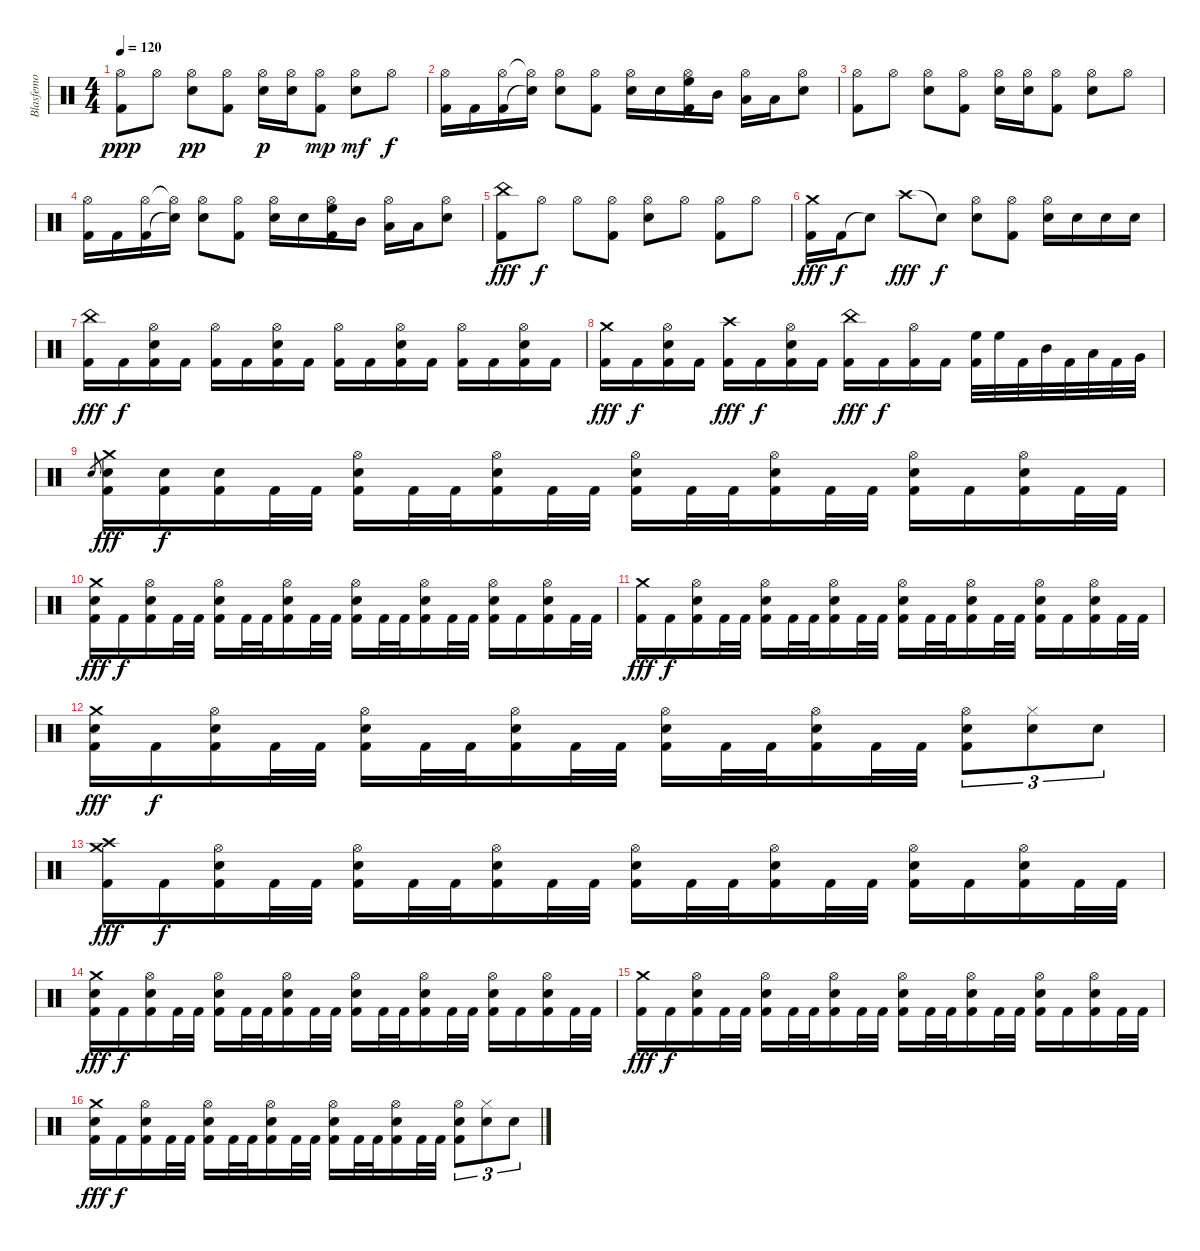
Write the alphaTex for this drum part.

\track ("Blasfemo" "Blasfemo") {instrument percussion}
\staff {score}
\articulation defaults
\ts (4 4)
\tempo 120
\clef neutral
\ks c
("Hi-Hat (open)" "Kick (hit) 2").8{dy ppp} "Hi-Hat (open)".8 ("Hi-Hat (open)" "Electric Snare (hit)").8{dy pp} ("Hi-Hat (open)" "Kick (hit) 2").8 ("Hi-Hat (open)" "Electric Snare (hit)").16{dy p} ("Hi-Hat (open)" "Electric Snare (hit)").16 ("Hi-Hat (open)" "Kick (hit) 2").8{dy mp} ("Hi-Hat (open)" "Electric Snare (hit)").8{dy mf} "Hi-Hat (open)".8{dy f} |
("Hi-Hat (open)" "Kick (hit) 2").16 "Kick (hit) 2".16 ("Hi-Hat (open)" "Kick (hit) 2").16 ("Hi-Hat (open)"{t} "Snare (hit)"{t}).16 ("Hi-Hat (open)" "Electric Snare (hit)").8 ("Hi-Hat (open)" "Kick (hit) 2").8 ("Hi-Hat (open)" "Electric Snare (hit)").16 "Electric Snare (hit)".16 ("Hi-Hat (open)" "High Floor Tom (hit)" "Kick (hit) 2").16 "Mid Tom (hit)".16 ("Hi-Hat (open)" "Low Tom (hit)").16 "Low Tom (hit)".16 ("Hi-Hat (open)" "Electric Snare (hit)").8 |
("Hi-Hat (open)" "Kick (hit) 2").8 "Hi-Hat (open)".8 ("Hi-Hat (open)" "Electric Snare (hit)").8 ("Hi-Hat (open)" "Kick (hit) 2").8 ("Hi-Hat (open)" "Electric Snare (hit)").16 ("Hi-Hat (open)" "Electric Snare (hit)").16 ("Hi-Hat (open)" "Kick (hit) 2").8 ("Hi-Hat (open)" "Electric Snare (hit)").8 "Hi-Hat (open)".8 |
("Hi-Hat (open)" "Kick (hit) 2").16 "Kick (hit) 2".16 ("Hi-Hat (open)" "Kick (hit) 2").16 ("Hi-Hat (open)"{t} "Snare (hit)"{t}).16 ("Hi-Hat (open)" "Electric Snare (hit)").8 ("Hi-Hat (open)" "Kick (hit) 2").8 ("Hi-Hat (open)" "Electric Snare (hit)").16 "Electric Snare (hit)".16 ("Hi-Hat (open)" "High Floor Tom (hit)" "Kick (hit) 2").16 "Mid Tom (hit)".16 ("Hi-Hat (open)" "Low Tom (hit)").16 "Low Tom (hit)".16 ("Hi-Hat (open)" "Electric Snare (hit)").8 |
("China (hit)" "Kick (hit) 2").8{dy fff} "Hi-Hat (open)".8{dy f} "Hi-Hat (open)".8 ("Hi-Hat (open)" "Kick (hit) 2").8 ("Hi-Hat (open)" "Electric Snare (hit)").8 "Hi-Hat (open)".8 ("Hi-Hat (open)" "Kick (hit) 2").8 "Hi-Hat (open)".8 |
("Crash medium (hit)" "Kick (hit) 2").16{dy fff} "Kick (hit) 2".16{dy f} "Snare (hit)"{t}.8 "Crash high (hit)".8{dy fff} "Snare (hit)"{t}.8{dy f} ("Hi-Hat (open)" "Electric Snare (hit)").8 ("Hi-Hat (open)" "Kick (hit) 2").8 ("Hi-Hat (open)" "Electric Snare (hit)").16 "Electric Snare (hit)".16 "Electric Snare (hit)".16 "Electric Snare (hit)".16 |
("China (hit)" "Kick (hit) 2").16{dy fff} "Kick (hit) 2".16{dy f} ("Hi-Hat (open)" "Electric Snare (hit)" "Kick (hit) 2").16 "Kick (hit) 2".16 ("Hi-Hat (open)" "Kick (hit) 2").16 "Kick (hit) 2".16 ("Hi-Hat (open)" "Electric Snare (hit)" "Kick (hit) 2").16 "Kick (hit) 2".16 ("Hi-Hat (open)" "Kick (hit) 2").16 "Kick (hit) 2".16 ("Hi-Hat (open)" "Electric Snare (hit)" "Kick (hit) 2").16 "Kick (hit) 2".16 ("Hi-Hat (open)" "Kick (hit) 2").16 "Kick (hit) 2".16 ("Hi-Hat (open)" "Electric Snare (hit)" "Kick (hit) 2").16 "Kick (hit) 2".16 |
("Crash medium (hit)" "Kick (hit) 2").16{dy fff} "Kick (hit) 2".16{dy f} ("Hi-Hat (open)" "Electric Snare (hit)" "Kick (hit) 2").16 "Kick (hit) 2".16 ("Crash high (hit)" "Kick (hit) 2").16{dy fff} "Kick (hit) 2".16{dy f} ("Hi-Hat (open)" "Electric Snare (hit)" "Kick (hit) 2").16 "Kick (hit) 2".16 ("China (hit)" "Kick (hit) 2").16{dy fff} "Kick (hit) 2".16{dy f} ("Hi-Hat (open)" "Kick (hit) 2").16 "Kick (hit) 2".16 ("High Floor Tom (hit)" "Kick (hit) 2").32 "High Floor Tom (hit)".32 "Kick (hit) 2".32 "Mid Tom (hit)".32 "Kick (hit) 2".32 "Low Tom (hit)".32 "Kick (hit) 2".32 "Very Low Tom (hit)".32 |
"Electric Snare (hit)".8{gr} ("Crash medium (hit)" "Electric Snare (hit)" "Kick (hit) 2").16{dy fff} ("Electric Snare (hit)" "Kick (hit) 2").16{dy f} ("Electric Snare (hit)" "Kick (hit) 2").16 "Kick (hit) 2".32 "Kick (hit) 2".32 ("Hi-Hat (open)" "Electric Snare (hit)" "Kick (hit) 2").16 "Kick (hit) 2".32 "Kick (hit) 2".32 ("Hi-Hat (open)" "Electric Snare (hit)" "Kick (hit) 2").16 "Kick (hit) 2".32 "Kick (hit) 2".32 ("Hi-Hat (open)" "Electric Snare (hit)" "Kick (hit) 2").16 "Kick (hit) 2".32 "Kick (hit) 2".32 ("Hi-Hat (open)" "Electric Snare (hit)" "Kick (hit) 2").16 "Kick (hit) 2".32 "Kick (hit) 2".32 ("Hi-Hat (open)" "Electric Snare (hit)" "Kick (hit) 2").16 "Kick (hit) 2".16 ("Hi-Hat (open)" "Electric Snare (hit)" "Kick (hit) 2").16 "Kick (hit) 2".32 "Kick (hit) 2".32 |
("Crash medium (hit)" "Electric Snare (hit)" "Kick (hit) 2").16{dy fff} "Kick (hit) 2".16{dy f} ("Hi-Hat (open)" "Electric Snare (hit)" "Kick (hit) 2").16 "Kick (hit) 2".32 "Kick (hit) 2".32 ("Hi-Hat (open)" "Electric Snare (hit)" "Kick (hit) 2").16 "Kick (hit) 2".32 "Kick (hit) 2".32 ("Hi-Hat (open)" "Electric Snare (hit)" "Kick (hit) 2").16 "Kick (hit) 2".32 "Kick (hit) 2".32 ("Hi-Hat (open)" "Electric Snare (hit)" "Kick (hit) 2").16 "Kick (hit) 2".32 "Kick (hit) 2".32 ("Hi-Hat (open)" "Electric Snare (hit)" "Kick (hit) 2").16 "Kick (hit) 2".32 "Kick (hit) 2".32 ("Hi-Hat (open)" "Electric Snare (hit)" "Kick (hit) 2").16 "Kick (hit) 2".16 ("Hi-Hat (open)" "Electric Snare (hit)" "Kick (hit) 2").16 "Kick (hit) 2".32 "Kick (hit) 2".32 |
("Crash medium (hit)" "Kick (hit) 2").16{dy fff} "Kick (hit) 2".16{dy f} ("Hi-Hat (open)" "Electric Snare (hit)" "Kick (hit) 2").16 "Kick (hit) 2".32 "Kick (hit) 2".32 ("Hi-Hat (open)" "Electric Snare (hit)" "Kick (hit) 2").16 "Kick (hit) 2".32 "Kick (hit) 2".32 ("Hi-Hat (open)" "Electric Snare (hit)" "Kick (hit) 2").16 "Kick (hit) 2".32 "Kick (hit) 2".32 ("Hi-Hat (open)" "Electric Snare (hit)" "Kick (hit) 2").16 "Kick (hit) 2".32 "Kick (hit) 2".32 ("Hi-Hat (open)" "Electric Snare (hit)" "Kick (hit) 2").16 "Kick (hit) 2".32 "Kick (hit) 2".32 ("Hi-Hat (open)" "Electric Snare (hit)" "Kick (hit) 2").16 "Kick (hit) 2".16 ("Hi-Hat (open)" "Electric Snare (hit)" "Kick (hit) 2").16 "Kick (hit) 2".32 "Kick (hit) 2".32 |
("Crash medium (hit)" "Electric Snare (hit)" "Kick (hit) 2").16{dy fff} "Kick (hit) 2".16{dy f} ("Hi-Hat (open)" "Electric Snare (hit)" "Kick (hit) 2").16 "Kick (hit) 2".32 "Kick (hit) 2".32 ("Hi-Hat (open)" "Electric Snare (hit)" "Kick (hit) 2").16 "Kick (hit) 2".32 "Kick (hit) 2".32 ("Hi-Hat (open)" "Electric Snare (hit)" "Kick (hit) 2").16 "Kick (hit) 2".32 "Kick (hit) 2".32 ("Hi-Hat (open)" "Electric Snare (hit)" "Kick (hit) 2").16 "Kick (hit) 2".32 "Kick (hit) 2".32 ("Hi-Hat (open)" "Electric Snare (hit)" "Kick (hit) 2").16 "Kick (hit) 2".32 "Kick (hit) 2".32 ("Hi-Hat (open)" "Electric Snare (hit)" "Kick (hit) 2").8{tu (3 2)} ("Hi-Hat (closed)" "Electric Snare (hit)").8{tu (3 2)} "Electric Snare (hit)".8{tu (3 2)} |
("Crash high (hit)" "Crash medium (hit)" "Kick (hit) 2").16{dy fff} "Kick (hit) 2".16{dy f} ("Hi-Hat (open)" "Electric Snare (hit)" "Kick (hit) 2").16 "Kick (hit) 2".32 "Kick (hit) 2".32 ("Hi-Hat (open)" "Electric Snare (hit)" "Kick (hit) 2").16 "Kick (hit) 2".32 "Kick (hit) 2".32 ("Hi-Hat (open)" "Electric Snare (hit)" "Kick (hit) 2").16 "Kick (hit) 2".32 "Kick (hit) 2".32 ("Hi-Hat (open)" "Electric Snare (hit)" "Kick (hit) 2").16 "Kick (hit) 2".32 "Kick (hit) 2".32 ("Hi-Hat (open)" "Electric Snare (hit)" "Kick (hit) 2").16 "Kick (hit) 2".32 "Kick (hit) 2".32 ("Hi-Hat (open)" "Electric Snare (hit)" "Kick (hit) 2").16 "Kick (hit) 2".16 ("Hi-Hat (open)" "Electric Snare (hit)" "Kick (hit) 2").16 "Kick (hit) 2".32 "Kick (hit) 2".32 |
("Crash medium (hit)" "Electric Snare (hit)" "Kick (hit) 2").16{dy fff} "Kick (hit) 2".16{dy f} ("Hi-Hat (open)" "Electric Snare (hit)" "Kick (hit) 2").16 "Kick (hit) 2".32 "Kick (hit) 2".32 ("Hi-Hat (open)" "Electric Snare (hit)" "Kick (hit) 2").16 "Kick (hit) 2".32 "Kick (hit) 2".32 ("Hi-Hat (open)" "Electric Snare (hit)" "Kick (hit) 2").16 "Kick (hit) 2".32 "Kick (hit) 2".32 ("Hi-Hat (open)" "Electric Snare (hit)" "Kick (hit) 2").16 "Kick (hit) 2".32 "Kick (hit) 2".32 ("Hi-Hat (open)" "Electric Snare (hit)" "Kick (hit) 2").16 "Kick (hit) 2".32 "Kick (hit) 2".32 ("Hi-Hat (open)" "Electric Snare (hit)" "Kick (hit) 2").16 "Kick (hit) 2".16 ("Hi-Hat (open)" "Electric Snare (hit)" "Kick (hit) 2").16 "Kick (hit) 2".32 "Kick (hit) 2".32 |
("Crash medium (hit)" "Kick (hit) 2").16{dy fff} "Kick (hit) 2".16{dy f} ("Hi-Hat (open)" "Electric Snare (hit)" "Kick (hit) 2").16 "Kick (hit) 2".32 "Kick (hit) 2".32 ("Hi-Hat (open)" "Electric Snare (hit)" "Kick (hit) 2").16 "Kick (hit) 2".32 "Kick (hit) 2".32 ("Hi-Hat (open)" "Electric Snare (hit)" "Kick (hit) 2").16 "Kick (hit) 2".32 "Kick (hit) 2".32 ("Hi-Hat (open)" "Electric Snare (hit)" "Kick (hit) 2").16 "Kick (hit) 2".32 "Kick (hit) 2".32 ("Hi-Hat (open)" "Electric Snare (hit)" "Kick (hit) 2").16 "Kick (hit) 2".32 "Kick (hit) 2".32 ("Hi-Hat (open)" "Electric Snare (hit)" "Kick (hit) 2").16 "Kick (hit) 2".16 ("Hi-Hat (open)" "Electric Snare (hit)" "Kick (hit) 2").16 "Kick (hit) 2".32 "Kick (hit) 2".32 |
("Crash medium (hit)" "Electric Snare (hit)" "Kick (hit) 2").16{dy fff} "Kick (hit) 2".16{dy f} ("Hi-Hat (open)" "Electric Snare (hit)" "Kick (hit) 2").16 "Kick (hit) 2".32 "Kick (hit) 2".32 ("Hi-Hat (open)" "Electric Snare (hit)" "Kick (hit) 2").16 "Kick (hit) 2".32 "Kick (hit) 2".32 ("Hi-Hat (open)" "Electric Snare (hit)" "Kick (hit) 2").16 "Kick (hit) 2".32 "Kick (hit) 2".32 ("Hi-Hat (open)" "Electric Snare (hit)" "Kick (hit) 2").16 "Kick (hit) 2".32 "Kick (hit) 2".32 ("Hi-Hat (open)" "Electric Snare (hit)" "Kick (hit) 2").16 "Kick (hit) 2".32 "Kick (hit) 2".32 ("Hi-Hat (open)" "Electric Snare (hit)" "Kick (hit) 2").8{tu (3 2)} ("Hi-Hat (closed)" "Electric Snare (hit)").8{tu (3 2)} "Electric Snare (hit)".8{tu (3 2)}
